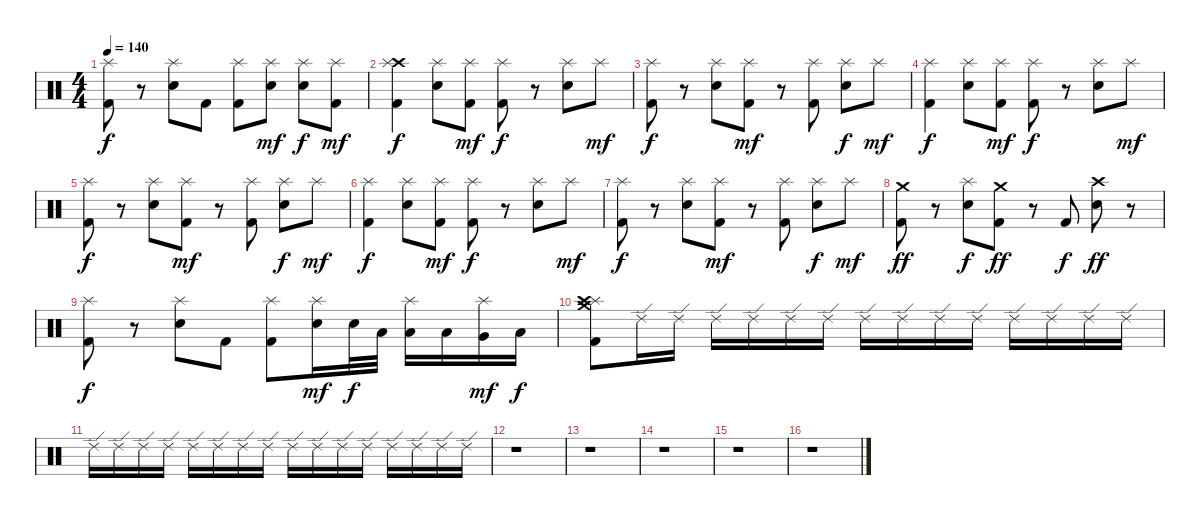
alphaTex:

\track "" {instrument percussion}
\staff {score}
\articulation defaults
\ts (4 4)
\tempo 140
\clef neutral
\ks c
("Splash (hit)" "Kick (hit) 2").8{dy f} r.8 ("Splash (hit)" "Electric Snare (hit)").8 "Kick (hit) 2".8 ("Splash (hit)" "Kick (hit) 2").8 ("Splash (hit)" "Electric Snare (hit)").8{dy mf} ("Splash (hit)" "Electric Snare (hit)").8{dy f} ("Splash (hit)" "Kick (hit) 2").8{dy mf} |
("Crash high (hit)" "Splash (hit)" "Kick (hit) 2").4{dy f} ("Splash (hit)" "Electric Snare (hit)").8 ("Splash (hit)" "Kick (hit) 2").8{dy mf} ("Splash (hit)" "Kick (hit) 2").8{dy f} r.8 ("Splash (hit)" "Electric Snare (hit)").8 "Splash (hit)".8{dy mf} |
("Splash (hit)" "Kick (hit) 2").8{dy f} r.8 ("Splash (hit)" "Electric Snare (hit)").8 ("Splash (hit)" "Kick (hit) 2").8{dy mf} r.8 ("Splash (hit)" "Kick (hit) 2").8 ("Splash (hit)" "Electric Snare (hit)").8{dy f} "Splash (hit)".8{dy mf} |
("Splash (hit)" "Kick (hit) 2").4{dy f} ("Splash (hit)" "Electric Snare (hit)").8 ("Splash (hit)" "Kick (hit) 2").8{dy mf} ("Splash (hit)" "Kick (hit) 2").8{dy f} r.8 ("Splash (hit)" "Electric Snare (hit)").8 "Splash (hit)".8{dy mf} |
("Splash (hit)" "Kick (hit) 2").8{dy f} r.8 ("Splash (hit)" "Electric Snare (hit)").8 ("Splash (hit)" "Kick (hit) 2").8{dy mf} r.8 ("Splash (hit)" "Kick (hit) 2").8 ("Splash (hit)" "Electric Snare (hit)").8{dy f} "Splash (hit)".8{dy mf} |
("Splash (hit)" "Kick (hit) 2").4{dy f} ("Splash (hit)" "Electric Snare (hit)").8 ("Splash (hit)" "Kick (hit) 2").8{dy mf} ("Splash (hit)" "Kick (hit) 2").8{dy f} r.8 ("Splash (hit)" "Electric Snare (hit)").8 "Splash (hit)".8{dy mf} |
("Splash (hit)" "Kick (hit) 2").8{dy f} r.8 ("Splash (hit)" "Electric Snare (hit)").8 ("Splash (hit)" "Kick (hit) 2").8{dy mf} r.8 ("Splash (hit)" "Kick (hit) 2").8 ("Splash (hit)" "Electric Snare (hit)").8{dy f} "Splash (hit)".8{dy mf} |
("Crash medium (hit)" "Kick (hit) 2").8{dy ff} r.8 ("Splash (hit)" "Electric Snare (hit)").8{dy f} ("Crash medium (hit)" "Kick (hit) 2").8{dy ff} r.8 "Kick (hit) 2".8{dy f} ("Crash high (hit)" "Electric Snare (hit)").8{dy ff} r.8 |
("Splash (hit)" "Kick (hit) 2").8{dy f} r.8 ("Splash (hit)" "Electric Snare (hit)").8{volume 16} "Kick (hit) 2".8 ("Splash (hit)" "Kick (hit) 2").8 ("Splash (hit)" "Electric Snare (hit)").16{dy mf} "Electric Snare (hit)".32{dy f} "Low Tom (hit)".32 ("Splash (hit)" "Low Tom (hit)").16 "Low Tom (hit)".16 ("Splash (hit)" "Very Low Tom (hit)").16{dy mf} "Low Floor Tom (hit)".16{dy f} |
("Crash medium (hit)" "Splash (hit)" "Crash high (hit)" "Kick (hit) 2").8{volume 16} "Ride (edge) 2".16{volume 15} "Ride (edge) 2".16{volume 15} "Ride (edge) 2".16{volume 15} "Ride (edge) 2".16{volume 14} "Ride (edge) 2".16{volume 14} "Ride (edge) 2".16{volume 14} "Ride (edge) 2".16{volume 14} "Ride (edge) 2".16{volume 13} "Ride (edge) 2".16{volume 13} "Ride (edge) 2".16{volume 12} "Ride (edge) 2".16{volume 12} "Ride (edge) 2".16{volume 11} "Ride (edge) 2".16{volume 11} "Ride (edge) 2".16{volume 10} |
"Ride (edge) 2".16{volume 10} "Ride (edge) 2".16{volume 10} "Ride (edge) 2".16{volume 9} "Ride (edge) 2".16{volume 9} "Ride (edge) 2".16{volume 8} "Ride (edge) 2".16{volume 8} "Ride (edge) 2".16{volume 8} "Ride (edge) 2".16{volume 8} "Ride (edge) 2".16{volume 7} "Ride (edge) 2".16{volume 7} "Ride (edge) 2".16{volume 6} "Ride (edge) 2".16{volume 6} "Ride (edge) 2".16{volume 6} "Ride (edge) 2".16{volume 6} "Ride (edge) 2".16 "Ride (edge) 2".16{volume 5} |
r.1 |
r.1 |
r.1 |
r.1 |
r.1
